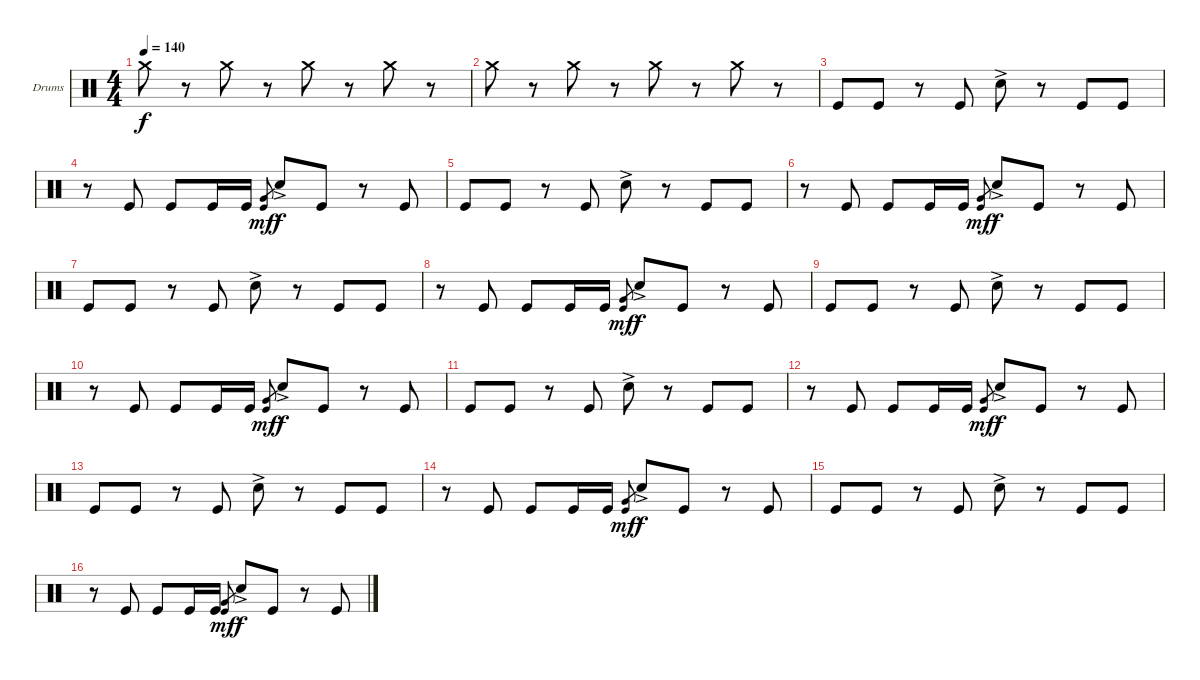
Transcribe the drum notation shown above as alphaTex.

\defaultSystemsLayout 4
\bracketExtendMode groupsimilarinstruments
\firstSystemTrackNameOrientation horizontal
\otherSystemsTrackNameOrientation horizontal
\track ("Drumkit" "Drums") {instrument percussion}
\staff {score}
\articulation defaults
\ts (4 4)
\tempo 140
\clef neutral
\ks c "Crash medium (hit)".8{dy f}
r.8 "Crash medium (hit)".8 r.8 "Crash medium (hit)".8 r.8 "Crash medium (hit)".8 r.8 |
"Crash medium (hit)".8 r.8 "Crash medium (hit)".8 r.8 "Crash medium (hit)".8 r.8 "Crash medium (hit)".8 r.8 |
"Kick (hit)".8 "Kick (hit)".8 r.8 "Kick (hit)".8 "Snare (hit) 2"{ac}.8 r.8 "Kick (hit)".8 "Kick (hit)".8 |
r.8 "Kick (hit)".8 "Kick (hit)".8 "Kick (hit)".16 "Kick (hit)".16 ("Very Low Tom (hit)" "Kick (hit)").8{gr dy mf} "Snare (hit) 2"{ac}.8{dy f} "Kick (hit)".8 r.8 "Kick (hit)".8 |
"Kick (hit)".8 "Kick (hit)".8 r.8 "Kick (hit)".8 "Snare (hit) 2"{ac}.8 r.8 "Kick (hit)".8 "Kick (hit)".8 |
r.8 "Kick (hit)".8 "Kick (hit)".8 "Kick (hit)".16 "Kick (hit)".16 ("Very Low Tom (hit)" "Kick (hit)").8{gr dy mf} "Snare (hit) 2"{ac}.8{dy f} "Kick (hit)".8 r.8 "Kick (hit)".8 |
"Kick (hit)".8 "Kick (hit)".8 r.8 "Kick (hit)".8 "Snare (hit) 2"{ac}.8 r.8 "Kick (hit)".8 "Kick (hit)".8 |
r.8 "Kick (hit)".8 "Kick (hit)".8 "Kick (hit)".16 "Kick (hit)".16 ("Very Low Tom (hit)" "Kick (hit)").8{gr dy mf} "Snare (hit) 2"{ac}.8{dy f} "Kick (hit)".8 r.8 "Kick (hit)".8 |
"Kick (hit)".8 "Kick (hit)".8 r.8 "Kick (hit)".8 "Snare (hit) 2"{ac}.8 r.8 "Kick (hit)".8 "Kick (hit)".8 |
r.8 "Kick (hit)".8 "Kick (hit)".8 "Kick (hit)".16 "Kick (hit)".16 ("Very Low Tom (hit)" "Kick (hit)").8{gr dy mf} "Snare (hit) 2"{ac}.8{dy f} "Kick (hit)".8 r.8 "Kick (hit)".8 |
"Kick (hit)".8 "Kick (hit)".8 r.8 "Kick (hit)".8 "Snare (hit) 2"{ac}.8 r.8 "Kick (hit)".8 "Kick (hit)".8 |
r.8 "Kick (hit)".8 "Kick (hit)".8 "Kick (hit)".16 "Kick (hit)".16 ("Very Low Tom (hit)" "Kick (hit)").8{gr dy mf} "Snare (hit) 2"{ac}.8{dy f} "Kick (hit)".8 r.8 "Kick (hit)".8 |
"Kick (hit)".8 "Kick (hit)".8 r.8 "Kick (hit)".8 "Snare (hit) 2"{ac}.8 r.8 "Kick (hit)".8 "Kick (hit)".8 |
r.8 "Kick (hit)".8 "Kick (hit)".8 "Kick (hit)".16 "Kick (hit)".16 ("Very Low Tom (hit)" "Kick (hit)").8{gr dy mf} "Snare (hit) 2"{ac}.8{dy f} "Kick (hit)".8 r.8 "Kick (hit)".8 |
"Kick (hit)".8 "Kick (hit)".8 r.8 "Kick (hit)".8 "Snare (hit) 2"{ac}.8 r.8 "Kick (hit)".8 "Kick (hit)".8 |
r.8 "Kick (hit)".8 "Kick (hit)".8 "Kick (hit)".16 "Kick (hit)".16 ("Very Low Tom (hit)" "Kick (hit)").8{gr dy mf} "Snare (hit) 2"{ac}.8{dy f} "Kick (hit)".8 r.8 "Kick (hit)".8
